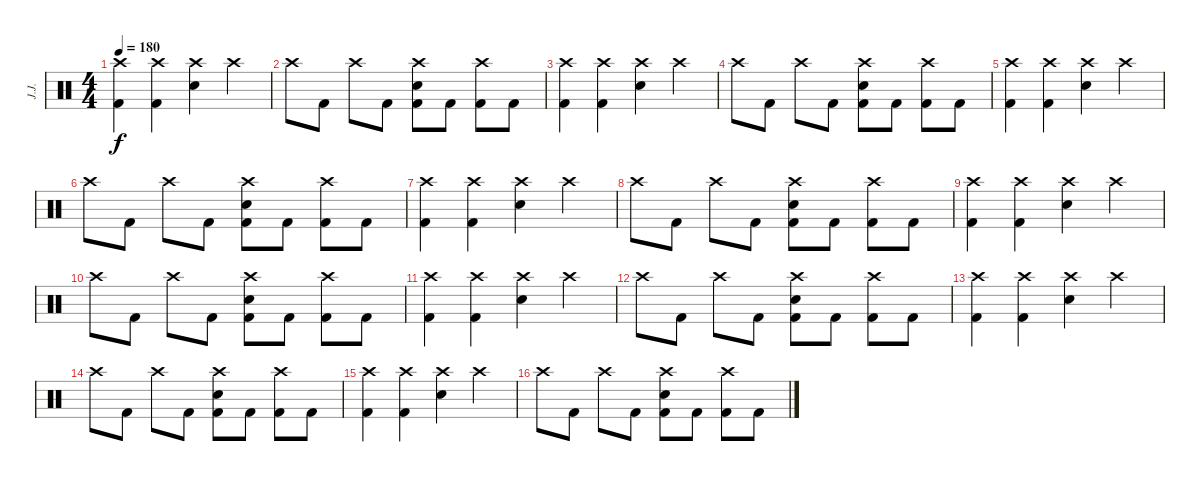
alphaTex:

\track ("J.J." "J.J.") {instrument percussion}
\staff {score}
\articulation defaults
\ts (4 4)
\tempo 180
\clef neutral
\ks c
("Crash high (hit)" "Kick (hit) 2").4{dy f} ("Crash high (hit)" "Kick (hit) 2").4 ("Crash high (hit)" "Electric Snare (hit)").4 "Crash high (hit)".4 |
"Crash high (hit)".8 "Kick (hit) 2".8 "Crash high (hit)".8 "Kick (hit) 2".8 ("Crash high (hit)" "Electric Snare (hit)" "Kick (hit) 2").8 "Kick (hit) 2".8 ("Crash high (hit)" "Kick (hit) 2").8 "Kick (hit) 2".8 |
("Crash high (hit)" "Kick (hit) 2").4 ("Crash high (hit)" "Kick (hit) 2").4 ("Crash high (hit)" "Electric Snare (hit)").4 "Crash high (hit)".4 |
"Crash high (hit)".8 "Kick (hit) 2".8 "Crash high (hit)".8 "Kick (hit) 2".8 ("Crash high (hit)" "Electric Snare (hit)" "Kick (hit) 2").8 "Kick (hit) 2".8 ("Crash high (hit)" "Kick (hit) 2").8 "Kick (hit) 2".8 |
("Crash high (hit)" "Kick (hit) 2").4 ("Crash high (hit)" "Kick (hit) 2").4 ("Crash high (hit)" "Electric Snare (hit)").4 "Crash high (hit)".4 |
"Crash high (hit)".8 "Kick (hit) 2".8 "Crash high (hit)".8 "Kick (hit) 2".8 ("Crash high (hit)" "Electric Snare (hit)" "Kick (hit) 2").8 "Kick (hit) 2".8 ("Crash high (hit)" "Kick (hit) 2").8 "Kick (hit) 2".8 |
("Crash high (hit)" "Kick (hit) 2").4 ("Crash high (hit)" "Kick (hit) 2").4 ("Crash high (hit)" "Electric Snare (hit)").4 "Crash high (hit)".4 |
"Crash high (hit)".8 "Kick (hit) 2".8 "Crash high (hit)".8 "Kick (hit) 2".8 ("Crash high (hit)" "Electric Snare (hit)" "Kick (hit) 2").8 "Kick (hit) 2".8 ("Crash high (hit)" "Kick (hit) 2").8 "Kick (hit) 2".8 |
("Crash high (hit)" "Kick (hit) 2").4 ("Crash high (hit)" "Kick (hit) 2").4 ("Crash high (hit)" "Electric Snare (hit)").4 "Crash high (hit)".4 |
"Crash high (hit)".8 "Kick (hit) 2".8 "Crash high (hit)".8 "Kick (hit) 2".8 ("Crash high (hit)" "Electric Snare (hit)" "Kick (hit) 2").8 "Kick (hit) 2".8 ("Crash high (hit)" "Kick (hit) 2").8 "Kick (hit) 2".8 |
("Crash high (hit)" "Kick (hit) 2").4 ("Crash high (hit)" "Kick (hit) 2").4 ("Crash high (hit)" "Electric Snare (hit)").4 "Crash high (hit)".4 |
"Crash high (hit)".8 "Kick (hit) 2".8 "Crash high (hit)".8 "Kick (hit) 2".8 ("Crash high (hit)" "Electric Snare (hit)" "Kick (hit) 2").8 "Kick (hit) 2".8 ("Crash high (hit)" "Kick (hit) 2").8 "Kick (hit) 2".8 |
("Crash high (hit)" "Kick (hit) 2").4 ("Crash high (hit)" "Kick (hit) 2").4 ("Crash high (hit)" "Electric Snare (hit)").4 "Crash high (hit)".4 |
"Crash high (hit)".8 "Kick (hit) 2".8 "Crash high (hit)".8 "Kick (hit) 2".8 ("Crash high (hit)" "Electric Snare (hit)" "Kick (hit) 2").8 "Kick (hit) 2".8 ("Crash high (hit)" "Kick (hit) 2").8 "Kick (hit) 2".8 |
("Crash high (hit)" "Kick (hit) 2").4 ("Crash high (hit)" "Kick (hit) 2").4 ("Crash high (hit)" "Electric Snare (hit)").4 "Crash high (hit)".4 |
"Crash high (hit)".8 "Kick (hit) 2".8 "Crash high (hit)".8 "Kick (hit) 2".8 ("Crash high (hit)" "Electric Snare (hit)" "Kick (hit) 2").8 "Kick (hit) 2".8 ("Crash high (hit)" "Kick (hit) 2").8 "Kick (hit) 2".8
